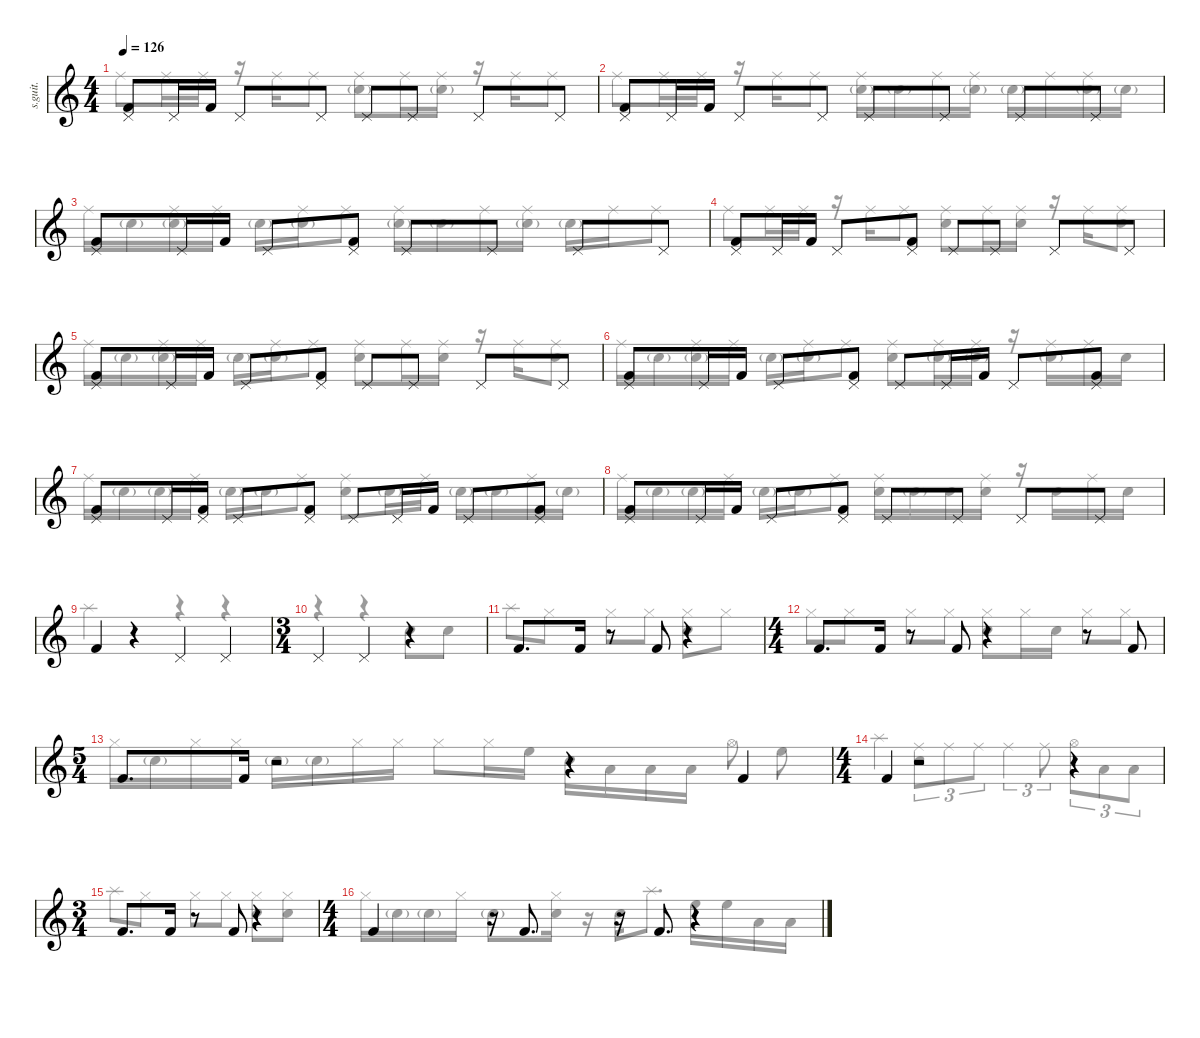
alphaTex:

\defaultSystemsLayout 4
\hideDynamics
\bracketExtendMode nobrackets
\track ("Percussion" "s.guit.") {instrument percussion}
\staff {score}
\articulation defaults
\voice
\ts (4 4)
\beaming (8 2 2 2 2)
\tempo 126
\clef g2
\ks c
("Pedal Hi-Hat (hit)" "Kick (hit) 2").8{lyrics (0 "") lyrics (1 "") lyrics (2 "") lyrics (3 "") lyrics (4 "") dy mf} "Pedal Hi-Hat (hit)".16{lyrics (0 "") lyrics (1 "") lyrics (2 "") lyrics (3 "") lyrics (4 "")} "Kick (hit) 2".16{lyrics (0 "") lyrics (1 "") lyrics (2 "") lyrics (3 "") lyrics (4 "")} "Pedal Hi-Hat (hit)".8{lyrics (0 "") lyrics (1 "") lyrics (2 "") lyrics (3 "") lyrics (4 "")} "Pedal Hi-Hat (hit)".8{lyrics (0 "") lyrics (1 "") lyrics (2 "") lyrics (3 "") lyrics (4 "")} "Pedal Hi-Hat (hit)".8{lyrics (0 "") lyrics (1 "") lyrics (2 "") lyrics (3 "") lyrics (4 "")} "Pedal Hi-Hat (hit)".8{lyrics (0 "") lyrics (1 "") lyrics (2 "") lyrics (3 "") lyrics (4 "")} "Pedal Hi-Hat (hit)".8{lyrics (0 "") lyrics (1 "") lyrics (2 "") lyrics (3 "") lyrics (4 "")} "Pedal Hi-Hat (hit)".8{lyrics (0 "") lyrics (1 "") lyrics (2 "") lyrics (3 "") lyrics (4 "")} |
("Pedal Hi-Hat (hit)" "Kick (hit) 2").8{lyrics (0 "") lyrics (1 "") lyrics (2 "") lyrics (3 "") lyrics (4 "")} "Pedal Hi-Hat (hit)".16{lyrics (0 "") lyrics (1 "") lyrics (2 "") lyrics (3 "") lyrics (4 "")} "Kick (hit) 2".16{lyrics (0 "") lyrics (1 "") lyrics (2 "") lyrics (3 "") lyrics (4 "")} "Pedal Hi-Hat (hit)".8{lyrics (0 "") lyrics (1 "") lyrics (2 "") lyrics (3 "") lyrics (4 "")} "Pedal Hi-Hat (hit)".8{lyrics (0 "") lyrics (1 "") lyrics (2 "") lyrics (3 "") lyrics (4 "")} "Pedal Hi-Hat (hit)".8{lyrics (0 "") lyrics (1 "") lyrics (2 "") lyrics (3 "") lyrics (4 "")} "Pedal Hi-Hat (hit)".8{lyrics (0 "") lyrics (1 "") lyrics (2 "") lyrics (3 "") lyrics (4 "")} "Pedal Hi-Hat (hit)".8{lyrics (0 "") lyrics (1 "") lyrics (2 "") lyrics (3 "") lyrics (4 "")} "Pedal Hi-Hat (hit)".8{lyrics (0 "") lyrics (1 "") lyrics (2 "") lyrics (3 "") lyrics (4 "")} |
("Pedal Hi-Hat (hit)" "Kick (hit) 2").8{lyrics (0 "") lyrics (1 "") lyrics (2 "") lyrics (3 "") lyrics (4 "")} "Pedal Hi-Hat (hit)".16{lyrics (0 "") lyrics (1 "") lyrics (2 "") lyrics (3 "") lyrics (4 "")} "Kick (hit) 2".16{lyrics (0 "") lyrics (1 "") lyrics (2 "") lyrics (3 "") lyrics (4 "")} "Pedal Hi-Hat (hit)".8{lyrics (0 "") lyrics (1 "") lyrics (2 "") lyrics (3 "") lyrics (4 "")} ("Pedal Hi-Hat (hit)" "Kick (hit) 2").8{lyrics (0 "") lyrics (1 "") lyrics (2 "") lyrics (3 "") lyrics (4 "")} "Pedal Hi-Hat (hit)".8{lyrics (0 "") lyrics (1 "") lyrics (2 "") lyrics (3 "") lyrics (4 "")} "Pedal Hi-Hat (hit)".8{lyrics (0 "") lyrics (1 "") lyrics (2 "") lyrics (3 "") lyrics (4 "")} "Pedal Hi-Hat (hit)".8{lyrics (0 "") lyrics (1 "") lyrics (2 "") lyrics (3 "") lyrics (4 "")} "Pedal Hi-Hat (hit)".8{lyrics (0 "") lyrics (1 "") lyrics (2 "") lyrics (3 "") lyrics (4 "")} |
("Pedal Hi-Hat (hit)" "Kick (hit) 2").8{lyrics (0 "") lyrics (1 "") lyrics (2 "") lyrics (3 "") lyrics (4 "")} "Pedal Hi-Hat (hit)".16{lyrics (0 "") lyrics (1 "") lyrics (2 "") lyrics (3 "") lyrics (4 "")} "Kick (hit) 2".16{lyrics (0 "") lyrics (1 "") lyrics (2 "") lyrics (3 "") lyrics (4 "")} "Pedal Hi-Hat (hit)".8{lyrics (0 "") lyrics (1 "") lyrics (2 "") lyrics (3 "") lyrics (4 "")} ("Pedal Hi-Hat (hit)" "Kick (hit) 2").8{lyrics (0 "") lyrics (1 "") lyrics (2 "") lyrics (3 "") lyrics (4 "")} "Pedal Hi-Hat (hit)".8{lyrics (0 "") lyrics (1 "") lyrics (2 "") lyrics (3 "") lyrics (4 "")} "Pedal Hi-Hat (hit)".8{lyrics (0 "") lyrics (1 "") lyrics (2 "") lyrics (3 "") lyrics (4 "")} "Pedal Hi-Hat (hit)".8{lyrics (0 "") lyrics (1 "") lyrics (2 "") lyrics (3 "") lyrics (4 "")} "Pedal Hi-Hat (hit)".8{lyrics (0 "") lyrics (1 "") lyrics (2 "") lyrics (3 "") lyrics (4 "")} |
("Pedal Hi-Hat (hit)" "Kick (hit) 2").8{lyrics (0 "") lyrics (1 "") lyrics (2 "") lyrics (3 "") lyrics (4 "")} "Pedal Hi-Hat (hit)".16{lyrics (0 "") lyrics (1 "") lyrics (2 "") lyrics (3 "") lyrics (4 "")} "Kick (hit) 2".16{lyrics (0 "") lyrics (1 "") lyrics (2 "") lyrics (3 "") lyrics (4 "")} "Pedal Hi-Hat (hit)".8{lyrics (0 "") lyrics (1 "") lyrics (2 "") lyrics (3 "") lyrics (4 "")} ("Pedal Hi-Hat (hit)" "Kick (hit) 2").8{lyrics (0 "") lyrics (1 "") lyrics (2 "") lyrics (3 "") lyrics (4 "")} "Pedal Hi-Hat (hit)".8{lyrics (0 "") lyrics (1 "") lyrics (2 "") lyrics (3 "") lyrics (4 "")} "Pedal Hi-Hat (hit)".8{lyrics (0 "") lyrics (1 "") lyrics (2 "") lyrics (3 "") lyrics (4 "")} "Pedal Hi-Hat (hit)".8{lyrics (0 "") lyrics (1 "") lyrics (2 "") lyrics (3 "") lyrics (4 "")} "Pedal Hi-Hat (hit)".8{lyrics (0 "") lyrics (1 "") lyrics (2 "") lyrics (3 "") lyrics (4 "")} |
("Pedal Hi-Hat (hit)" "Kick (hit) 2").8{lyrics (0 "") lyrics (1 "") lyrics (2 "") lyrics (3 "") lyrics (4 "")} "Pedal Hi-Hat (hit)".16{lyrics (0 "") lyrics (1 "") lyrics (2 "") lyrics (3 "") lyrics (4 "")} "Kick (hit) 2".16{lyrics (0 "") lyrics (1 "") lyrics (2 "") lyrics (3 "") lyrics (4 "")} "Pedal Hi-Hat (hit)".8{lyrics (0 "") lyrics (1 "") lyrics (2 "") lyrics (3 "") lyrics (4 "")} ("Pedal Hi-Hat (hit)" "Kick (hit) 2").8{lyrics (0 "") lyrics (1 "") lyrics (2 "") lyrics (3 "") lyrics (4 "")} "Pedal Hi-Hat (hit)".8{lyrics (0 "") lyrics (1 "") lyrics (2 "") lyrics (3 "") lyrics (4 "")} "Pedal Hi-Hat (hit)".16{lyrics (0 "") lyrics (1 "") lyrics (2 "") lyrics (3 "") lyrics (4 "")} "Kick (hit) 2".16{lyrics (0 "") lyrics (1 "") lyrics (2 "") lyrics (3 "") lyrics (4 "")} "Pedal Hi-Hat (hit)".8{lyrics (0 "") lyrics (1 "") lyrics (2 "") lyrics (3 "") lyrics (4 "")} ("Pedal Hi-Hat (hit)" "Kick (hit) 2").8{lyrics (0 "") lyrics (1 "") lyrics (2 "") lyrics (3 "") lyrics (4 "")} |
("Pedal Hi-Hat (hit)" "Kick (hit) 2").8{lyrics (0 "") lyrics (1 "") lyrics (2 "") lyrics (3 "") lyrics (4 "")} "Pedal Hi-Hat (hit)".16{lyrics (0 "") lyrics (1 "") lyrics (2 "") lyrics (3 "") lyrics (4 "")} ("Pedal Hi-Hat (hit)" "Kick (hit) 2").16{lyrics (0 "") lyrics (1 "") lyrics (2 "") lyrics (3 "") lyrics (4 "")} "Pedal Hi-Hat (hit)".8{lyrics (0 "") lyrics (1 "") lyrics (2 "") lyrics (3 "") lyrics (4 "")} ("Pedal Hi-Hat (hit)" "Kick (hit) 2").8{lyrics (0 "") lyrics (1 "") lyrics (2 "") lyrics (3 "") lyrics (4 "")} "Pedal Hi-Hat (hit)".8{lyrics (0 "") lyrics (1 "") lyrics (2 "") lyrics (3 "") lyrics (4 "")} "Pedal Hi-Hat (hit)".16{lyrics (0 "") lyrics (1 "") lyrics (2 "") lyrics (3 "") lyrics (4 "")} "Kick (hit) 2".16{lyrics (0 "") lyrics (1 "") lyrics (2 "") lyrics (3 "") lyrics (4 "")} "Pedal Hi-Hat (hit)".8{lyrics (0 "") lyrics (1 "") lyrics (2 "") lyrics (3 "") lyrics (4 "")} ("Pedal Hi-Hat (hit)" "Kick (hit) 2").8{lyrics (0 "") lyrics (1 "") lyrics (2 "") lyrics (3 "") lyrics (4 "")} |
("Pedal Hi-Hat (hit)" "Kick (hit) 2").8{lyrics (0 "") lyrics (1 "") lyrics (2 "") lyrics (3 "") lyrics (4 "")} "Pedal Hi-Hat (hit)".16{lyrics (0 "") lyrics (1 "") lyrics (2 "") lyrics (3 "") lyrics (4 "")} "Kick (hit) 2".16{lyrics (0 "") lyrics (1 "") lyrics (2 "") lyrics (3 "") lyrics (4 "")} "Pedal Hi-Hat (hit)".8{lyrics (0 "") lyrics (1 "") lyrics (2 "") lyrics (3 "") lyrics (4 "")} ("Pedal Hi-Hat (hit)" "Kick (hit) 2").8{lyrics (0 "") lyrics (1 "") lyrics (2 "") lyrics (3 "") lyrics (4 "")} "Pedal Hi-Hat (hit)".8{lyrics (0 "") lyrics (1 "") lyrics (2 "") lyrics (3 "") lyrics (4 "")} "Pedal Hi-Hat (hit)".8{lyrics (0 "") lyrics (1 "") lyrics (2 "") lyrics (3 "") lyrics (4 "")} "Pedal Hi-Hat (hit)".8{lyrics (0 "") lyrics (1 "") lyrics (2 "") lyrics (3 "") lyrics (4 "")} "Pedal Hi-Hat (hit)".8{lyrics (0 "") lyrics (1 "") lyrics (2 "") lyrics (3 "") lyrics (4 "")} |
"Kick (hit) 2".4{lyrics (0 "") lyrics (1 "") lyrics (2 "") lyrics (3 "") lyrics (4 "")} r.4 "Pedal Hi-Hat (hit)".4{lyrics (0 "") lyrics (1 "") lyrics (2 "") lyrics (3 "") lyrics (4 "")} "Pedal Hi-Hat (hit)".4{lyrics (0 "") lyrics (1 "") lyrics (2 "") lyrics (3 "") lyrics (4 "")} |
\ts (3 4)
\beaming (8 2 2 2 2)
"Pedal Hi-Hat (hit)".4{lyrics (0 "") lyrics (1 "") lyrics (2 "") lyrics (3 "") lyrics (4 "")} "Pedal Hi-Hat (hit)".4{lyrics (0 "") lyrics (1 "") lyrics (2 "") lyrics (3 "") lyrics (4 "")} r.4 |
"Kick (hit) 2".8{d lyrics (0 "") lyrics (1 "") lyrics (2 "") lyrics (3 "") lyrics (4 "")} "Kick (hit) 2".16{lyrics (0 "") lyrics (1 "") lyrics (2 "") lyrics (3 "") lyrics (4 "")} r.8 "Kick (hit) 2".8{lyrics (0 "") lyrics (1 "") lyrics (2 "") lyrics (3 "") lyrics (4 "")} r.4 |
\ts (4 4)
\beaming (8 2 2 2 2)
"Kick (hit) 2".8{d lyrics (0 "") lyrics (1 "") lyrics (2 "") lyrics (3 "") lyrics (4 "")} "Kick (hit) 2".16{lyrics (0 "") lyrics (1 "") lyrics (2 "") lyrics (3 "") lyrics (4 "")} r.8 "Kick (hit) 2".8{lyrics (0 "") lyrics (1 "") lyrics (2 "") lyrics (3 "") lyrics (4 "")} r.4 r.8 "Kick (hit) 2".8{lyrics (0 "") lyrics (1 "") lyrics (2 "") lyrics (3 "") lyrics (4 "")} |
\ts (5 4)
\beaming (8 2 2 2 2)
"Kick (hit) 2".8{d lyrics (0 "") lyrics (1 "") lyrics (2 "") lyrics (3 "") lyrics (4 "")} "Kick (hit) 2".16{lyrics (0 "") lyrics (1 "") lyrics (2 "") lyrics (3 "") lyrics (4 "")} r.2 r.4 "Kick (hit) 2".4{lyrics (0 "") lyrics (1 "") lyrics (2 "") lyrics (3 "") lyrics (4 "")} |
\ts (4 4)
\beaming (8 2 2 2 2)
"Kick (hit) 2".4{lyrics (0 "") lyrics (1 "") lyrics (2 "") lyrics (3 "") lyrics (4 "")} r.2 r.4 |
\ts (3 4)
\beaming (8 2 2 2 2)
"Kick (hit) 2".8{d lyrics (0 "") lyrics (1 "") lyrics (2 "") lyrics (3 "") lyrics (4 "")} "Kick (hit) 2".16{lyrics (0 "") lyrics (1 "") lyrics (2 "") lyrics (3 "") lyrics (4 "")} r.8 "Kick (hit) 2".8{lyrics (0 "") lyrics (1 "") lyrics (2 "") lyrics (3 "") lyrics (4 "")} r.4 |
\ts (4 4)
\beaming (8 2 2 2 2)
"Kick (hit) 2".4{lyrics (0 "") lyrics (1 "") lyrics (2 "") lyrics (3 "") lyrics (4 "")} r.16 "Kick (hit) 2".8{d lyrics (0 "") lyrics (1 "") lyrics (2 "") lyrics (3 "") lyrics (4 "")} r.16 "Kick (hit) 2".8{d lyrics (0 "") lyrics (1 "") lyrics (2 "") lyrics (3 "") lyrics (4 "")} r.4
\voice
\clef g2
\ottava regular
\simile none
\ks c "Ride (middle)".8{lyrics (0 "") lyrics (1 "") lyrics (2 "") lyrics (3 "") lyrics (4 "") dy mf} "Ride (middle)".16{lyrics (0 "") lyrics (1 "") lyrics (2 "") lyrics (3 "") lyrics (4 "")} "Ride (middle)".16{lyrics (0 "") lyrics (1 "") lyrics (2 "") lyrics (3 "") lyrics (4 "")}
r.16 "Ride (middle)".16{lyrics (0 "") lyrics (1 "") lyrics (2 "") lyrics (3 "") lyrics (4 "")} "Ride (middle)".8{lyrics (0 "") lyrics (1 "") lyrics (2 "") lyrics (3 "") lyrics (4 "")} ("Ride (middle)" "Snare (hit) 2"{g}).8{lyrics (0 "") lyrics (1 "") lyrics (2 "") lyrics (3 "") lyrics (4 "")} "Ride (middle)".16{lyrics (0 "") lyrics (1 "") lyrics (2 "") lyrics (3 "") lyrics (4 "")} ("Ride (middle)" "Snare (hit) 2"{g}).16{lyrics (0 "") lyrics (1 "") lyrics (2 "") lyrics (3 "") lyrics (4 "")} r.16 "Ride (middle)".16{lyrics (0 "") lyrics (1 "") lyrics (2 "") lyrics (3 "") lyrics (4 "")} "Ride (middle)".8{lyrics (0 "") lyrics (1 "") lyrics (2 "") lyrics (3 "") lyrics (4 "")} |
"Ride (middle)".8{lyrics (0 "") lyrics (1 "") lyrics (2 "") lyrics (3 "") lyrics (4 "")} "Ride (middle)".16{lyrics (0 "") lyrics (1 "") lyrics (2 "") lyrics (3 "") lyrics (4 "")} "Ride (middle)".16{lyrics (0 "") lyrics (1 "") lyrics (2 "") lyrics (3 "") lyrics (4 "")} r.16 "Ride (middle)".16{lyrics (0 "") lyrics (1 "") lyrics (2 "") lyrics (3 "") lyrics (4 "")} "Ride (middle)".8{lyrics (0 "") lyrics (1 "") lyrics (2 "") lyrics (3 "") lyrics (4 "")} ("Ride (middle)" "Snare (hit) 2"{g}).16{lyrics (0 "") lyrics (1 "") lyrics (2 "") lyrics (3 "") lyrics (4 "")} "Snare (hit) 2"{g}.16{lyrics (0 "") lyrics (1 "") lyrics (2 "") lyrics (3 "") lyrics (4 "")} "Ride (middle)".16{lyrics (0 "") lyrics (1 "") lyrics (2 "") lyrics (3 "") lyrics (4 "")} ("Ride (middle)" "Snare (hit) 2"{g}).16{lyrics (0 "") lyrics (1 "") lyrics (2 "") lyrics (3 "") lyrics (4 "")} "Snare (hit) 2"{g}.16{lyrics (0 "") lyrics (1 "") lyrics (2 "") lyrics (3 "") lyrics (4 "")} "Ride (middle)".16{lyrics (0 "") lyrics (1 "") lyrics (2 "") lyrics (3 "") lyrics (4 "")} ("Ride (middle)" "Snare (hit) 2"{g}).16{lyrics (0 "") lyrics (1 "") lyrics (2 "") lyrics (3 "") lyrics (4 "")} "Snare (hit) 2"{g}.16{lyrics (0 "") lyrics (1 "") lyrics (2 "") lyrics (3 "") lyrics (4 "")} |
"Ride (middle)".16{lyrics (0 "") lyrics (1 "") lyrics (2 "") lyrics (3 "") lyrics (4 "")} "Snare (hit) 2"{g}.16{lyrics (0 "") lyrics (1 "") lyrics (2 "") lyrics (3 "") lyrics (4 "")} ("Ride (middle)" "Snare (hit) 2"{g}).16{lyrics (0 "") lyrics (1 "") lyrics (2 "") lyrics (3 "") lyrics (4 "")} "Ride (middle)".16{lyrics (0 "") lyrics (1 "") lyrics (2 "") lyrics (3 "") lyrics (4 "")} "Snare (hit) 2"{g}.16{lyrics (0 "") lyrics (1 "") lyrics (2 "") lyrics (3 "") lyrics (4 "")} ("Ride (middle)" "Snare (hit) 2"{g}).16{lyrics (0 "") lyrics (1 "") lyrics (2 "") lyrics (3 "") lyrics (4 "")} "Ride (middle)".8{lyrics (0 "") lyrics (1 "") lyrics (2 "") lyrics (3 "") lyrics (4 "")} ("Ride (middle)" "Snare (hit) 2"{g}).16{lyrics (0 "") lyrics (1 "") lyrics (2 "") lyrics (3 "") lyrics (4 "")} "Snare (hit) 2"{g}.16{lyrics (0 "") lyrics (1 "") lyrics (2 "") lyrics (3 "") lyrics (4 "")} "Ride (middle)".16{lyrics (0 "") lyrics (1 "") lyrics (2 "") lyrics (3 "") lyrics (4 "")} ("Ride (middle)" "Snare (hit) 2"{g}).16{lyrics (0 "") lyrics (1 "") lyrics (2 "") lyrics (3 "") lyrics (4 "")} "Snare (hit) 2"{g}.16{lyrics (0 "") lyrics (1 "") lyrics (2 "") lyrics (3 "") lyrics (4 "")} "Ride (middle)".16{lyrics (0 "") lyrics (1 "") lyrics (2 "") lyrics (3 "") lyrics (4 "")} "Ride (middle)".8{lyrics (0 "") lyrics (1 "") lyrics (2 "") lyrics (3 "") lyrics (4 "")} |
"Ride (middle)".8{lyrics (0 "") lyrics (1 "") lyrics (2 "") lyrics (3 "") lyrics (4 "")} "Ride (middle)".16{lyrics (0 "") lyrics (1 "") lyrics (2 "") lyrics (3 "") lyrics (4 "")} "Ride (middle)".16{lyrics (0 "") lyrics (1 "") lyrics (2 "") lyrics (3 "") lyrics (4 "")} r.16 "Ride (middle)".16{lyrics (0 "") lyrics (1 "") lyrics (2 "") lyrics (3 "") lyrics (4 "")} "Ride (middle)".8{lyrics (0 "") lyrics (1 "") lyrics (2 "") lyrics (3 "") lyrics (4 "")} ("Ride (middle)" "Snare (hit) 2").8{lyrics (0 "") lyrics (1 "") lyrics (2 "") lyrics (3 "") lyrics (4 "")} "Ride (middle)".16{lyrics (0 "") lyrics (1 "") lyrics (2 "") lyrics (3 "") lyrics (4 "")} ("Ride (middle)" "Snare (hit) 2").16{lyrics (0 "") lyrics (1 "") lyrics (2 "") lyrics (3 "") lyrics (4 "")} r.16 "Ride (middle)".16{lyrics (0 "") lyrics (1 "") lyrics (2 "") lyrics (3 "") lyrics (4 "")} ("Ride (middle)" "Snare (hit) 2").8{lyrics (0 "") lyrics (1 "") lyrics (2 "") lyrics (3 "") lyrics (4 "")} |
"Ride (middle)".16{lyrics (0 "") lyrics (1 "") lyrics (2 "") lyrics (3 "") lyrics (4 "")} "Snare (hit) 2"{g}.16{lyrics (0 "") lyrics (1 "") lyrics (2 "") lyrics (3 "") lyrics (4 "")} ("Ride (middle)" "Snare (hit) 2"{g}).16{lyrics (0 "") lyrics (1 "") lyrics (2 "") lyrics (3 "") lyrics (4 "")} "Ride (middle)".16{lyrics (0 "") lyrics (1 "") lyrics (2 "") lyrics (3 "") lyrics (4 "")} "Snare (hit) 2"{g}.16{lyrics (0 "") lyrics (1 "") lyrics (2 "") lyrics (3 "") lyrics (4 "")} ("Ride (middle)" "Snare (hit) 2"{g}).16{lyrics (0 "") lyrics (1 "") lyrics (2 "") lyrics (3 "") lyrics (4 "")} "Ride (middle)".8{lyrics (0 "") lyrics (1 "") lyrics (2 "") lyrics (3 "") lyrics (4 "")} ("Ride (middle)" "Snare (hit) 2").8{lyrics (0 "") lyrics (1 "") lyrics (2 "") lyrics (3 "") lyrics (4 "")} "Ride (middle)".16{lyrics (0 "") lyrics (1 "") lyrics (2 "") lyrics (3 "") lyrics (4 "")} ("Ride (middle)" "Snare (hit) 2").16{lyrics (0 "") lyrics (1 "") lyrics (2 "") lyrics (3 "") lyrics (4 "")} r.16 "Ride (middle)".16{lyrics (0 "") lyrics (1 "") lyrics (2 "") lyrics (3 "") lyrics (4 "")} ("Ride (middle)" "Snare (hit) 2").8{lyrics (0 "") lyrics (1 "") lyrics (2 "") lyrics (3 "") lyrics (4 "")} |
"Ride (middle)".16{lyrics (0 "") lyrics (1 "") lyrics (2 "") lyrics (3 "") lyrics (4 "")} "Snare (hit) 2"{g}.16{lyrics (0 "") lyrics (1 "") lyrics (2 "") lyrics (3 "") lyrics (4 "")} ("Ride (middle)" "Snare (hit) 2"{g}).16{lyrics (0 "") lyrics (1 "") lyrics (2 "") lyrics (3 "") lyrics (4 "")} "Ride (middle)".16{lyrics (0 "") lyrics (1 "") lyrics (2 "") lyrics (3 "") lyrics (4 "")} "Snare (hit) 2"{g}.16{lyrics (0 "") lyrics (1 "") lyrics (2 "") lyrics (3 "") lyrics (4 "")} ("Ride (middle)" "Snare (hit) 2"{g}).16{lyrics (0 "") lyrics (1 "") lyrics (2 "") lyrics (3 "") lyrics (4 "")} "Ride (middle)".8{lyrics (0 "") lyrics (1 "") lyrics (2 "") lyrics (3 "") lyrics (4 "")} ("Ride (middle)" "Snare (hit) 2").8{lyrics (0 "") lyrics (1 "") lyrics (2 "") lyrics (3 "") lyrics (4 "")} ("Ride (middle)" "Snare (hit) 2"{g}).16{lyrics (0 "") lyrics (1 "") lyrics (2 "") lyrics (3 "") lyrics (4 "")} ("Ride (middle)" "Snare (hit) 2"{g}).16{lyrics (0 "") lyrics (1 "") lyrics (2 "") lyrics (3 "") lyrics (4 "")} r.16 ("Ride (middle)" "Snare (hit) 2"{g}).16{lyrics (0 "") lyrics (1 "") lyrics (2 "") lyrics (3 "") lyrics (4 "")} "Ride (middle)".16{lyrics (0 "") lyrics (1 "") lyrics (2 "") lyrics (3 "") lyrics (4 "")} "Snare (hit) 2".16{lyrics (0 "") lyrics (1 "") lyrics (2 "") lyrics (3 "") lyrics (4 "")} |
"Ride (middle)".16{lyrics (0 "") lyrics (1 "") lyrics (2 "") lyrics (3 "") lyrics (4 "")} "Snare (hit) 2"{g}.16{lyrics (0 "") lyrics (1 "") lyrics (2 "") lyrics (3 "") lyrics (4 "")} "Snare (hit) 2"{g}.16{lyrics (0 "") lyrics (1 "") lyrics (2 "") lyrics (3 "") lyrics (4 "")} "Ride (middle)".16{lyrics (0 "") lyrics (1 "") lyrics (2 "") lyrics (3 "") lyrics (4 "")} "Snare (hit) 2"{g}.16{lyrics (0 "") lyrics (1 "") lyrics (2 "") lyrics (3 "") lyrics (4 "")} "Snare (hit) 2"{g}.16{lyrics (0 "") lyrics (1 "") lyrics (2 "") lyrics (3 "") lyrics (4 "")} "Ride (middle)".8{lyrics (0 "") lyrics (1 "") lyrics (2 "") lyrics (3 "") lyrics (4 "")} ("Ride (middle)" "Snare (hit) 2").8{lyrics (0 "") lyrics (1 "") lyrics (2 "") lyrics (3 "") lyrics (4 "")} "Snare (hit) 2"{g}.16{lyrics (0 "") lyrics (1 "") lyrics (2 "") lyrics (3 "") lyrics (4 "")} "Ride (middle)".16{lyrics (0 "") lyrics (1 "") lyrics (2 "") lyrics (3 "") lyrics (4 "")} "Snare (hit) 2"{g}.16{lyrics (0 "") lyrics (1 "") lyrics (2 "") lyrics (3 "") lyrics (4 "")} "Snare (hit) 2"{g}.16{lyrics (0 "") lyrics (1 "") lyrics (2 "") lyrics (3 "") lyrics (4 "")} "Ride (middle)".16{lyrics (0 "") lyrics (1 "") lyrics (2 "") lyrics (3 "") lyrics (4 "")} "Snare (hit) 2"{g}.16{lyrics (0 "") lyrics (1 "") lyrics (2 "") lyrics (3 "") lyrics (4 "")} |
"Ride (middle)".16{lyrics (0 "") lyrics (1 "") lyrics (2 "") lyrics (3 "") lyrics (4 "")} "Snare (hit) 2"{g}.16{lyrics (0 "") lyrics (1 "") lyrics (2 "") lyrics (3 "") lyrics (4 "")} "Snare (hit) 2"{g}.16{lyrics (0 "") lyrics (1 "") lyrics (2 "") lyrics (3 "") lyrics (4 "")} "Ride (middle)".16{lyrics (0 "") lyrics (1 "") lyrics (2 "") lyrics (3 "") lyrics (4 "")} "Snare (hit) 2"{g}.16{lyrics (0 "") lyrics (1 "") lyrics (2 "") lyrics (3 "") lyrics (4 "")} "Snare (hit) 2"{g}.16{lyrics (0 "") lyrics (1 "") lyrics (2 "") lyrics (3 "") lyrics (4 "")} "Ride (middle)".8{lyrics (0 "") lyrics (1 "") lyrics (2 "") lyrics (3 "") lyrics (4 "")} ("Ride (middle)" "Snare (hit) 2").16{lyrics (0 "") lyrics (1 "") lyrics (2 "") lyrics (3 "") lyrics (4 "")} "Snare (hit) 2"{g}.16{lyrics (0 "") lyrics (1 "") lyrics (2 "") lyrics (3 "") lyrics (4 "")} "Snare (hit) 2".16{lyrics (0 "") lyrics (1 "") lyrics (2 "") lyrics (3 "") lyrics (4 "")} ("Ride (middle)" "Snare (hit) 2").16{lyrics (0 "") lyrics (1 "") lyrics (2 "") lyrics (3 "") lyrics (4 "")} r.16 "Snare (hit) 2".16{lyrics (0 "") lyrics (1 "") lyrics (2 "") lyrics (3 "") lyrics (4 "")} "Ride (middle)".16{lyrics (0 "") lyrics (1 "") lyrics (2 "") lyrics (3 "") lyrics (4 "")} "Snare (hit) 2".16{lyrics (0 "") lyrics (1 "") lyrics (2 "") lyrics (3 "") lyrics (4 "")} |
"Splash (hit)".4{lyrics (0 "") lyrics (1 "") lyrics (2 "") lyrics (3 "") lyrics (4 "")} r.4 r.4 r.4 |
r.4 r.4 "Snare (hit) 2".8{lyrics (0 "") lyrics (1 "") lyrics (2 "") lyrics (3 "") lyrics (4 "")} "Snare (hit) 2".8{lyrics (0 "") lyrics (1 "") lyrics (2 "") lyrics (3 "") lyrics (4 "")} |
"Splash (hit)".8{lyrics (0 "") lyrics (1 "") lyrics (2 "") lyrics (3 "") lyrics (4 "")} "Hi-Hat (closed)".8{lyrics (0 "") lyrics (1 "") lyrics (2 "") lyrics (3 "") lyrics (4 "")} "Hi-Hat (closed)".8{lyrics (0 "") lyrics (1 "") lyrics (2 "") lyrics (3 "") lyrics (4 "")} "Hi-Hat (closed)".8{lyrics (0 "") lyrics (1 "") lyrics (2 "") lyrics (3 "") lyrics (4 "")} ("Hi-Hat (closed)" "Snare (hit) 2").8{lyrics (0 "") lyrics (1 "") lyrics (2 "") lyrics (3 "") lyrics (4 "")} "Hi-Hat (closed)".8{lyrics (0 "") lyrics (1 "") lyrics (2 "") lyrics (3 "") lyrics (4 "")} |
"Hi-Hat (closed)".8{lyrics (0 "") lyrics (1 "") lyrics (2 "") lyrics (3 "") lyrics (4 "")} "Hi-Hat (closed)".8{lyrics (0 "") lyrics (1 "") lyrics (2 "") lyrics (3 "") lyrics (4 "")} "Hi-Hat (closed)".8{lyrics (0 "") lyrics (1 "") lyrics (2 "") lyrics (3 "") lyrics (4 "")} "Hi-Hat (closed)".8{lyrics (0 "") lyrics (1 "") lyrics (2 "") lyrics (3 "") lyrics (4 "")} ("Hi-Hat (closed)" "Snare (hit) 2").8{lyrics (0 "") lyrics (1 "") lyrics (2 "") lyrics (3 "") lyrics (4 "")} "Hi-Hat (closed)".16{lyrics (0 "") lyrics (1 "") lyrics (2 "") lyrics (3 "") lyrics (4 "")} "Snare (hit) 2".16{lyrics (0 "") lyrics (1 "") lyrics (2 "") lyrics (3 "") lyrics (4 "")} "Hi-Hat (closed)".8{lyrics (0 "") lyrics (1 "") lyrics (2 "") lyrics (3 "") lyrics (4 "")} "Hi-Hat (closed)".8{lyrics (0 "") lyrics (1 "") lyrics (2 "") lyrics (3 "") lyrics (4 "")} |
"Hi-Hat (closed)".16{lyrics (0 "") lyrics (1 "") lyrics (2 "") lyrics (3 "") lyrics (4 "")} "Snare (hit) 2"{g}.16{lyrics (0 "") lyrics (1 "") lyrics (2 "") lyrics (3 "") lyrics (4 "")} "Hi-Hat (closed)".16{lyrics (0 "") lyrics (1 "") lyrics (2 "") lyrics (3 "") lyrics (4 "")} "Hi-Hat (closed)".16{lyrics (0 "") lyrics (1 "") lyrics (2 "") lyrics (3 "") lyrics (4 "")} "Snare (hit) 2"{g}.16{lyrics (0 "") lyrics (1 "") lyrics (2 "") lyrics (3 "") lyrics (4 "")} "Snare (hit) 2"{g}.16{lyrics (0 "") lyrics (1 "") lyrics (2 "") lyrics (3 "") lyrics (4 "")} "Hi-Hat (closed)".16{lyrics (0 "") lyrics (1 "") lyrics (2 "") lyrics (3 "") lyrics (4 "")} "Hi-Hat (closed)".16{lyrics (0 "") lyrics (1 "") lyrics (2 "") lyrics (3 "") lyrics (4 "")} "Hi-Hat (closed)".8{lyrics (0 "") lyrics (1 "") lyrics (2 "") lyrics (3 "") lyrics (4 "")} "Hi-Hat (closed)".16{lyrics (0 "") lyrics (1 "") lyrics (2 "") lyrics (3 "") lyrics (4 "")} "High Floor Tom (hit)".16{lyrics (0 "") lyrics (1 "") lyrics (2 "") lyrics (3 "") lyrics (4 "")} "Snare (hit) 2".16{lyrics (0 "") lyrics (1 "") lyrics (2 "") lyrics (3 "") lyrics (4 "")} "Low Tom (hit)".16{lyrics (0 "") lyrics (1 "") lyrics (2 "") lyrics (3 "") lyrics (4 "")} "Low Tom (hit)".16{lyrics (0 "") lyrics (1 "") lyrics (2 "") lyrics (3 "") lyrics (4 "")} "Low Tom (hit)".16{lyrics (0 "") lyrics (1 "") lyrics (2 "") lyrics (3 "") lyrics (4 "")} "Hi-Hat (open)".8{lyrics (0 "") lyrics (1 "") lyrics (2 "") lyrics (3 "") lyrics (4 "")} "High Floor Tom (hit)".8{lyrics (0 "") lyrics (1 "") lyrics (2 "") lyrics (3 "") lyrics (4 "")} |
"Splash (hit)".4{lyrics (0 "") lyrics (1 "") lyrics (2 "") lyrics (3 "") lyrics (4 "")} ("Ride (middle)" "Snare (hit) 2").8{tu (3 2) lyrics (0 "") lyrics (1 "") lyrics (2 "") lyrics (3 "") lyrics (4 "")} "Ride (middle)".8{tu (3 2) lyrics (0 "") lyrics (1 "") lyrics (2 "") lyrics (3 "") lyrics (4 "")} "Ride (middle)".8{tu (3 2) lyrics (0 "") lyrics (1 "") lyrics (2 "") lyrics (3 "") lyrics (4 "")} "Ride (middle)".4{tu (3 2) lyrics (0 "") lyrics (1 "") lyrics (2 "") lyrics (3 "") lyrics (4 "")} "Ride (middle)".8{tu (3 2) lyrics (0 "") lyrics (1 "") lyrics (2 "") lyrics (3 "") lyrics (4 "")} "Hi-Hat (open)".8{tu (3 2) lyrics (0 "") lyrics (1 "") lyrics (2 "") lyrics (3 "") lyrics (4 "")} "Low Tom (hit)".8{tu (3 2) lyrics (0 "") lyrics (1 "") lyrics (2 "") lyrics (3 "") lyrics (4 "")} "Low Tom (hit)".8{tu (3 2) lyrics (0 "") lyrics (1 "") lyrics (2 "") lyrics (3 "") lyrics (4 "")} |
"Splash (hit)".8{lyrics (0 "") lyrics (1 "") lyrics (2 "") lyrics (3 "") lyrics (4 "")} "Hi-Hat (closed)".8{lyrics (0 "") lyrics (1 "") lyrics (2 "") lyrics (3 "") lyrics (4 "")} "Hi-Hat (closed)".8{lyrics (0 "") lyrics (1 "") lyrics (2 "") lyrics (3 "") lyrics (4 "")} "Hi-Hat (closed)".8{lyrics (0 "") lyrics (1 "") lyrics (2 "") lyrics (3 "") lyrics (4 "")} ("Hi-Hat (closed)" "Snare (hit) 2").8{lyrics (0 "") lyrics (1 "") lyrics (2 "") lyrics (3 "") lyrics (4 "")} ("Hi-Hat (closed)" "Snare (hit) 2").8{lyrics (0 "") lyrics (1 "") lyrics (2 "") lyrics (3 "") lyrics (4 "")} |
"Hi-Hat (closed)".16{lyrics (0 "") lyrics (1 "") lyrics (2 "") lyrics (3 "") lyrics (4 "")} "Snare (hit) 2"{g}.16{lyrics (0 "") lyrics (1 "") lyrics (2 "") lyrics (3 "") lyrics (4 "")} "Snare (hit) 2"{g}.16{lyrics (0 "") lyrics (1 "") lyrics (2 "") lyrics (3 "") lyrics (4 "")} "Hi-Hat (closed)".16{lyrics (0 "") lyrics (1 "") lyrics (2 "") lyrics (3 "") lyrics (4 "")} "Snare (hit) 2"{g}.8{lyrics (0 "") lyrics (1 "") lyrics (2 "") lyrics (3 "") lyrics (4 "")} ("Hi-Hat (closed)" "Snare (hit) 2").16{lyrics (0 "") lyrics (1 "") lyrics (2 "") lyrics (3 "") lyrics (4 "")} r.16 "Snare (hit) 2".16{lyrics (0 "") lyrics (1 "") lyrics (2 "") lyrics (3 "") lyrics (4 "")} "Splash (hit)".8{d lyrics (0 "") lyrics (1 "") lyrics (2 "") lyrics (3 "") lyrics (4 "")} "High Floor Tom (hit)".16{lyrics (0 "") lyrics (1 "") lyrics (2 "") lyrics (3 "") lyrics (4 "")} "High Floor Tom (hit)".16{lyrics (0 "") lyrics (1 "") lyrics (2 "") lyrics (3 "") lyrics (4 "")} "Low Tom (hit)".16{lyrics (0 "") lyrics (1 "") lyrics (2 "") lyrics (3 "") lyrics (4 "")} "Low Tom (hit)".16{lyrics (0 "") lyrics (1 "") lyrics (2 "") lyrics (3 "") lyrics (4 "")}
